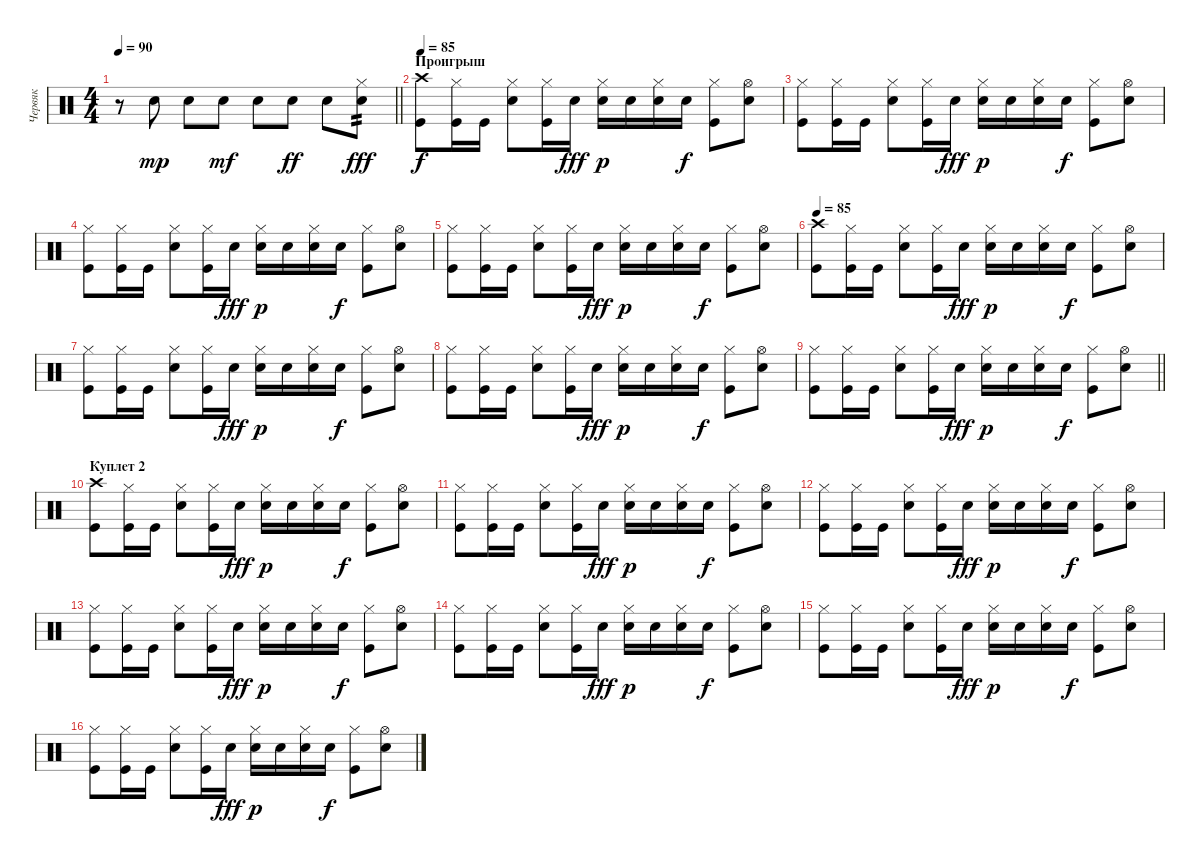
\track ("Червяк" "Червяк") {instrument percussion}
\staff {score}
\articulation defaults
\ts (4 4)
\tempo 90
\clef neutral
\barLineRight lightlight
\ks c
r.8{dy f} "Electric Snare (hit)".8{dy mp} "Electric Snare (hit)".8 "Electric Snare (hit)".8{dy mf} "Electric Snare (hit)".8 "Electric Snare (hit)".8{dy ff} "Electric Snare (hit)".8 ("Hi-Hat (closed)" "Electric Snare (hit)").8{tp 2 dy fff} |
\section ("" "Проигрыш")
\tempo 85
("Crash high (hit)" "Kick (hit)").8{dy f} ("Hi-Hat (closed)" "Kick (hit)").16 "Kick (hit)".16 ("Hi-Hat (closed)" "Electric Snare (hit)").8 ("Hi-Hat (closed)" "Kick (hit)").16 "Snare (hit) 2".16{dy fff} ("Hi-Hat (closed)" "Snare (hit) 2").16{dy p} "Snare (hit) 2".16 ("Hi-Hat (closed)" "Snare (hit) 2").16 "Snare (hit) 2".16{dy f} ("Hi-Hat (closed)" "Kick (hit)").8 ("Hi-Hat (open)" "Electric Snare (hit)").8 |
("Hi-Hat (closed)" "Kick (hit)").8 ("Hi-Hat (closed)" "Kick (hit)").16 "Kick (hit)".16 ("Hi-Hat (closed)" "Electric Snare (hit)").8 ("Hi-Hat (closed)" "Kick (hit)").16 "Snare (hit) 2".16{dy fff} ("Hi-Hat (closed)" "Snare (hit) 2").16{dy p} "Snare (hit) 2".16 ("Hi-Hat (closed)" "Snare (hit) 2").16 "Snare (hit) 2".16{dy f} ("Hi-Hat (closed)" "Kick (hit)").8 ("Hi-Hat (open)" "Electric Snare (hit)").8 |
("Hi-Hat (closed)" "Kick (hit)").8 ("Hi-Hat (closed)" "Kick (hit)").16 "Kick (hit)".16 ("Hi-Hat (closed)" "Electric Snare (hit)").8 ("Hi-Hat (closed)" "Kick (hit)").16 "Snare (hit) 2".16{dy fff} ("Hi-Hat (closed)" "Snare (hit) 2").16{dy p} "Snare (hit) 2".16 ("Hi-Hat (closed)" "Snare (hit) 2").16 "Snare (hit) 2".16{dy f} ("Hi-Hat (closed)" "Kick (hit)").8 ("Hi-Hat (open)" "Electric Snare (hit)").8 |
("Hi-Hat (closed)" "Kick (hit)").8 ("Hi-Hat (closed)" "Kick (hit)").16 "Kick (hit)".16 ("Hi-Hat (closed)" "Electric Snare (hit)").8 ("Hi-Hat (closed)" "Kick (hit)").16 "Snare (hit) 2".16{dy fff} ("Hi-Hat (closed)" "Snare (hit) 2").16{dy p} "Snare (hit) 2".16 ("Hi-Hat (closed)" "Snare (hit) 2").16 "Snare (hit) 2".16{dy f} ("Hi-Hat (closed)" "Kick (hit)").8 ("Hi-Hat (open)" "Electric Snare (hit)").8 |
\tempo 85
("Crash high (hit)" "Kick (hit)").8 ("Hi-Hat (closed)" "Kick (hit)").16 "Kick (hit)".16 ("Hi-Hat (closed)" "Electric Snare (hit)").8 ("Hi-Hat (closed)" "Kick (hit)").16 "Snare (hit) 2".16{dy fff} ("Hi-Hat (closed)" "Snare (hit) 2").16{dy p} "Snare (hit) 2".16 ("Hi-Hat (closed)" "Snare (hit) 2").16 "Snare (hit) 2".16{dy f} ("Hi-Hat (closed)" "Kick (hit)").8 ("Hi-Hat (open)" "Electric Snare (hit)").8 |
("Hi-Hat (closed)" "Kick (hit)").8 ("Hi-Hat (closed)" "Kick (hit)").16 "Kick (hit)".16 ("Hi-Hat (closed)" "Electric Snare (hit)").8 ("Hi-Hat (closed)" "Kick (hit)").16 "Snare (hit) 2".16{dy fff} ("Hi-Hat (closed)" "Snare (hit) 2").16{dy p} "Snare (hit) 2".16 ("Hi-Hat (closed)" "Snare (hit) 2").16 "Snare (hit) 2".16{dy f} ("Hi-Hat (closed)" "Kick (hit)").8 ("Hi-Hat (open)" "Electric Snare (hit)").8 |
("Hi-Hat (closed)" "Kick (hit)").8 ("Hi-Hat (closed)" "Kick (hit)").16 "Kick (hit)".16 ("Hi-Hat (closed)" "Electric Snare (hit)").8 ("Hi-Hat (closed)" "Kick (hit)").16 "Snare (hit) 2".16{dy fff} ("Hi-Hat (closed)" "Snare (hit) 2").16{dy p} "Snare (hit) 2".16 ("Hi-Hat (closed)" "Snare (hit) 2").16 "Snare (hit) 2".16{dy f} ("Hi-Hat (closed)" "Kick (hit)").8 ("Hi-Hat (open)" "Electric Snare (hit)").8 |
\barLineRight lightlight
("Hi-Hat (closed)" "Kick (hit)").8 ("Hi-Hat (closed)" "Kick (hit)").16 "Kick (hit)".16 ("Hi-Hat (closed)" "Electric Snare (hit)").8 ("Hi-Hat (closed)" "Kick (hit)").16 "Snare (hit) 2".16{dy fff} ("Hi-Hat (closed)" "Snare (hit) 2").16{dy p} "Snare (hit) 2".16 ("Hi-Hat (closed)" "Snare (hit) 2").16 "Snare (hit) 2".16{dy f} ("Hi-Hat (closed)" "Kick (hit)").8 ("Hi-Hat (open)" "Electric Snare (hit)").8 |
\section ("" "Куплет 2")
("Crash high (hit)" "Kick (hit)").8 ("Hi-Hat (closed)" "Kick (hit)").16 "Kick (hit)".16 ("Hi-Hat (closed)" "Electric Snare (hit)").8 ("Hi-Hat (closed)" "Kick (hit)").16 "Snare (hit) 2".16{dy fff} ("Hi-Hat (closed)" "Snare (hit) 2").16{dy p} "Snare (hit) 2".16 ("Hi-Hat (closed)" "Snare (hit) 2").16 "Snare (hit) 2".16{dy f} ("Hi-Hat (closed)" "Kick (hit)").8 ("Hi-Hat (open)" "Electric Snare (hit)").8 |
("Hi-Hat (closed)" "Kick (hit)").8 ("Hi-Hat (closed)" "Kick (hit)").16 "Kick (hit)".16 ("Hi-Hat (closed)" "Electric Snare (hit)").8 ("Hi-Hat (closed)" "Kick (hit)").16 "Snare (hit) 2".16{dy fff} ("Hi-Hat (closed)" "Snare (hit) 2").16{dy p} "Snare (hit) 2".16 ("Hi-Hat (closed)" "Snare (hit) 2").16 "Snare (hit) 2".16{dy f} ("Hi-Hat (closed)" "Kick (hit)").8 ("Hi-Hat (open)" "Electric Snare (hit)").8 |
("Hi-Hat (closed)" "Kick (hit)").8 ("Hi-Hat (closed)" "Kick (hit)").16 "Kick (hit)".16 ("Hi-Hat (closed)" "Electric Snare (hit)").8 ("Hi-Hat (closed)" "Kick (hit)").16 "Snare (hit) 2".16{dy fff} ("Hi-Hat (closed)" "Snare (hit) 2").16{dy p} "Snare (hit) 2".16 ("Hi-Hat (closed)" "Snare (hit) 2").16 "Snare (hit) 2".16{dy f} ("Hi-Hat (closed)" "Kick (hit)").8 ("Hi-Hat (open)" "Electric Snare (hit)").8 |
("Hi-Hat (closed)" "Kick (hit)").8 ("Hi-Hat (closed)" "Kick (hit)").16 "Kick (hit)".16 ("Hi-Hat (closed)" "Electric Snare (hit)").8 ("Hi-Hat (closed)" "Kick (hit)").16 "Snare (hit) 2".16{dy fff} ("Hi-Hat (closed)" "Snare (hit) 2").16{dy p} "Snare (hit) 2".16 ("Hi-Hat (closed)" "Snare (hit) 2").16 "Snare (hit) 2".16{dy f} ("Hi-Hat (closed)" "Kick (hit)").8 ("Hi-Hat (open)" "Electric Snare (hit)").8 |
("Hi-Hat (closed)" "Kick (hit)").8 ("Hi-Hat (closed)" "Kick (hit)").16 "Kick (hit)".16 ("Hi-Hat (closed)" "Electric Snare (hit)").8 ("Hi-Hat (closed)" "Kick (hit)").16 "Snare (hit) 2".16{dy fff} ("Hi-Hat (closed)" "Snare (hit) 2").16{dy p} "Snare (hit) 2".16 ("Hi-Hat (closed)" "Snare (hit) 2").16 "Snare (hit) 2".16{dy f} ("Hi-Hat (closed)" "Kick (hit)").8 ("Hi-Hat (open)" "Electric Snare (hit)").8 |
("Hi-Hat (closed)" "Kick (hit)").8 ("Hi-Hat (closed)" "Kick (hit)").16 "Kick (hit)".16 ("Hi-Hat (closed)" "Electric Snare (hit)").8 ("Hi-Hat (closed)" "Kick (hit)").16 "Snare (hit) 2".16{dy fff} ("Hi-Hat (closed)" "Snare (hit) 2").16{dy p} "Snare (hit) 2".16 ("Hi-Hat (closed)" "Snare (hit) 2").16 "Snare (hit) 2".16{dy f} ("Hi-Hat (closed)" "Kick (hit)").8 ("Hi-Hat (open)" "Electric Snare (hit)").8 |
("Hi-Hat (closed)" "Kick (hit)").8 ("Hi-Hat (closed)" "Kick (hit)").16 "Kick (hit)".16 ("Hi-Hat (closed)" "Electric Snare (hit)").8 ("Hi-Hat (closed)" "Kick (hit)").16 "Snare (hit) 2".16{dy fff} ("Hi-Hat (closed)" "Snare (hit) 2").16{dy p} "Snare (hit) 2".16 ("Hi-Hat (closed)" "Snare (hit) 2").16 "Snare (hit) 2".16{dy f} ("Hi-Hat (closed)" "Kick (hit)").8 ("Hi-Hat (open)" "Electric Snare (hit)").8
